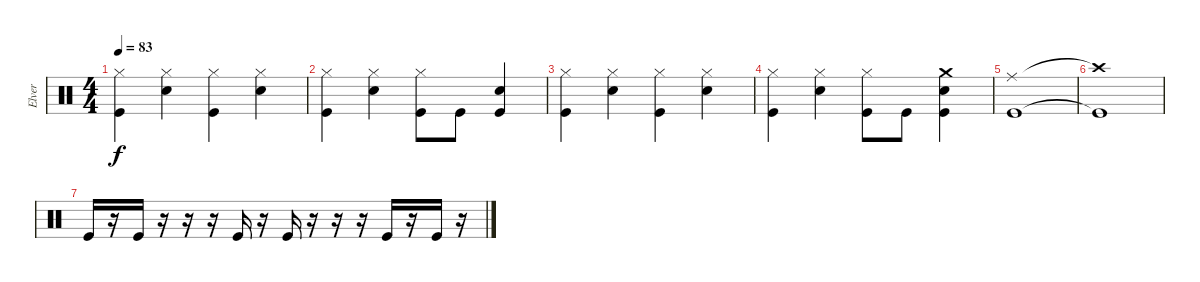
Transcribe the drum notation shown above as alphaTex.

\track ("Elver" "Elver") {instrument percussion}
\staff {score}
\articulation defaults
\ts (4 4)
\tempo 83
\clef neutral
\ks c
("Hi-Hat (closed)" "Kick (hit)").4{dy f} ("Electric Snare (hit)" "Hi-Hat (closed)").4 ("Kick (hit)" "Hi-Hat (closed)").4 ("Hi-Hat (closed)" "Electric Snare (hit)").4 |
("Hi-Hat (closed)" "Kick (hit)").4 ("Electric Snare (hit)" "Hi-Hat (closed)").4 ("Kick (hit)" "Hi-Hat (closed)").8 "Kick (hit)".8 ("Kick (hit)" "Electric Snare (hit)").4 |
("Hi-Hat (closed)" "Kick (hit)").4 ("Electric Snare (hit)" "Hi-Hat (closed)").4 ("Kick (hit)" "Hi-Hat (closed)").4 ("Hi-Hat (closed)" "Electric Snare (hit)").4 |
("Hi-Hat (closed)" "Kick (hit)").4 ("Electric Snare (hit)" "Hi-Hat (closed)").4 ("Kick (hit)" "Hi-Hat (closed)").8 "Kick (hit)".8 ("Kick (hit)" "Crash medium (hit)" "Electric Snare (hit)").4 |
("Ride (middle)" "Kick (hit)").1 |
("Crash high (hit)"{t} "Kick (hit)"{t}).1 |
"Kick (hit)".16 r.16 "Kick (hit)".16 r.16 r.16 r.16 "Kick (hit)".16 r.16 "Kick (hit)".16 r.16 r.16 r.16 "Kick (hit)".16 r.16 "Kick (hit)".16 r.16
